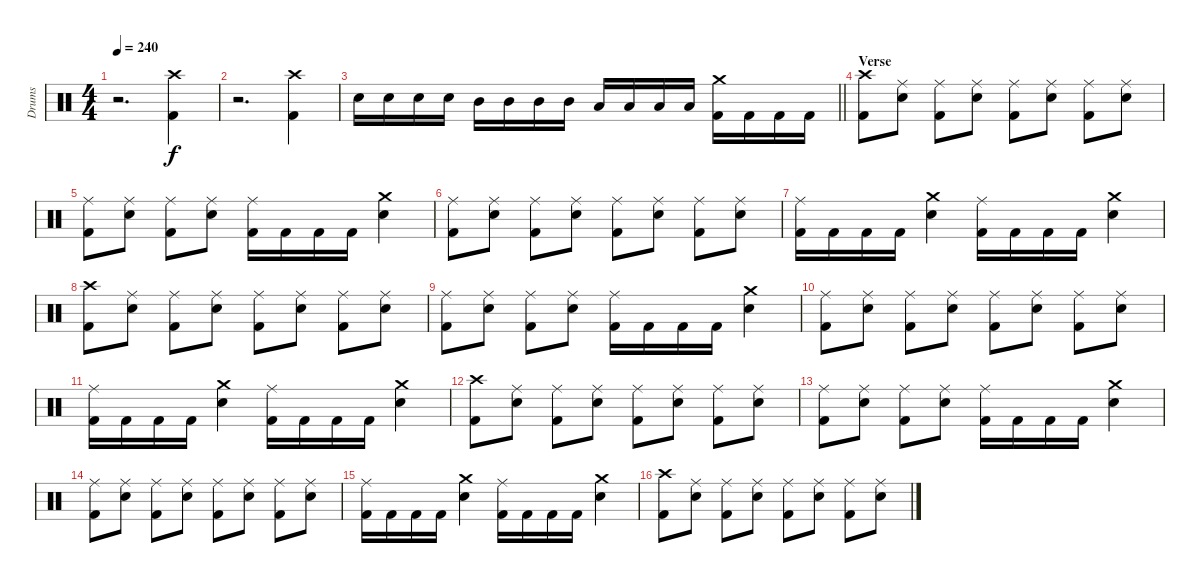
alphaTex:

\track ("Drums" "Drums") {instrument percussion}
\staff {score}
\articulation defaults
\ts (4 4)
\tempo 240
\clef neutral
\ks c
r.2{d dy f} ("Crash high (hit)" "Kick (hit) 2").4 |
r.2{d} ("Crash high (hit)" "Kick (hit) 2").4 |
\barLineRight lightlight "Snare (hit) 2".16 "Snare (hit) 2".16 "Snare (hit) 2".16 "Snare (hit) 2".16 "Mid Tom (hit)".16 "Mid Tom (hit)".16 "Mid Tom (hit)".16 "Mid Tom (hit)".16 "Low Tom (hit)".16 "Low Tom (hit)".16 "Low Tom (hit)".16 "Low Tom (hit)".16
("Crash medium (hit)" "Kick (hit) 2").16 "Kick (hit) 2".16 "Kick (hit) 2".16 "Kick (hit) 2".16 |
\section ("" "Verse")
("Crash high (hit)" "Kick (hit) 2").8 ("Ride (middle)" "Snare (hit) 2").8 ("Ride (middle)" "Kick (hit) 2").8 ("Ride (middle)" "Snare (hit) 2").8 ("Ride (middle)" "Kick (hit) 2").8 ("Ride (middle)" "Snare (hit) 2").8 ("Ride (middle)" "Kick (hit) 2").8 ("Ride (middle)" "Snare (hit) 2").8 |
("Ride (middle)" "Kick (hit) 2").8 ("Ride (middle)" "Snare (hit) 2").8 ("Ride (middle)" "Kick (hit) 2").8 ("Ride (middle)" "Snare (hit) 2").8 ("Ride (middle)" "Kick (hit) 2").16 "Kick (hit) 2".16 "Kick (hit) 2".16 "Kick (hit) 2".16 ("Crash medium (hit)" "Snare (hit) 2").4 |
("Ride (middle)" "Kick (hit) 2").8 ("Ride (middle)" "Snare (hit) 2").8 ("Ride (middle)" "Kick (hit) 2").8 ("Ride (middle)" "Snare (hit) 2").8 ("Ride (middle)" "Kick (hit) 2").8 ("Ride (middle)" "Snare (hit) 2").8 ("Ride (middle)" "Kick (hit) 2").8 ("Ride (middle)" "Snare (hit) 2").8 |
("Ride (middle)" "Kick (hit) 2").16 "Kick (hit) 2".16 "Kick (hit) 2".16 "Kick (hit) 2".16 ("Crash medium (hit)" "Snare (hit) 2").4 ("Ride (middle)" "Kick (hit) 2").16 "Kick (hit) 2".16 "Kick (hit) 2".16 "Kick (hit) 2".16 ("Crash medium (hit)" "Snare (hit) 2").4 |
("Crash high (hit)" "Kick (hit) 2").8 ("Ride (middle)" "Snare (hit) 2").8 ("Ride (middle)" "Kick (hit) 2").8 ("Ride (middle)" "Snare (hit) 2").8 ("Ride (middle)" "Kick (hit) 2").8 ("Ride (middle)" "Snare (hit) 2").8 ("Ride (middle)" "Kick (hit) 2").8 ("Ride (middle)" "Snare (hit) 2").8 |
("Ride (middle)" "Kick (hit) 2").8 ("Ride (middle)" "Snare (hit) 2").8 ("Ride (middle)" "Kick (hit) 2").8 ("Ride (middle)" "Snare (hit) 2").8 ("Ride (middle)" "Kick (hit) 2").16 "Kick (hit) 2".16 "Kick (hit) 2".16 "Kick (hit) 2".16 ("Crash medium (hit)" "Snare (hit) 2").4 |
("Ride (middle)" "Kick (hit) 2").8 ("Ride (middle)" "Snare (hit) 2").8 ("Ride (middle)" "Kick (hit) 2").8 ("Ride (middle)" "Snare (hit) 2").8 ("Ride (middle)" "Kick (hit) 2").8 ("Ride (middle)" "Snare (hit) 2").8 ("Ride (middle)" "Kick (hit) 2").8 ("Ride (middle)" "Snare (hit) 2").8 |
("Ride (middle)" "Kick (hit) 2").16 "Kick (hit) 2".16 "Kick (hit) 2".16 "Kick (hit) 2".16 ("Crash medium (hit)" "Snare (hit) 2").4 ("Ride (middle)" "Kick (hit) 2").16 "Kick (hit) 2".16 "Kick (hit) 2".16 "Kick (hit) 2".16 ("Crash medium (hit)" "Snare (hit) 2").4 |
("Crash high (hit)" "Kick (hit) 2").8 ("Ride (middle)" "Snare (hit) 2").8 ("Ride (middle)" "Kick (hit) 2").8 ("Ride (middle)" "Snare (hit) 2").8 ("Ride (middle)" "Kick (hit) 2").8 ("Ride (middle)" "Snare (hit) 2").8 ("Ride (middle)" "Kick (hit) 2").8 ("Ride (middle)" "Snare (hit) 2").8 |
("Ride (middle)" "Kick (hit) 2").8 ("Ride (middle)" "Snare (hit) 2").8 ("Ride (middle)" "Kick (hit) 2").8 ("Ride (middle)" "Snare (hit) 2").8 ("Ride (middle)" "Kick (hit) 2").16 "Kick (hit) 2".16 "Kick (hit) 2".16 "Kick (hit) 2".16 ("Crash medium (hit)" "Snare (hit) 2").4 |
("Ride (middle)" "Kick (hit) 2").8 ("Ride (middle)" "Snare (hit) 2").8 ("Ride (middle)" "Kick (hit) 2").8 ("Ride (middle)" "Snare (hit) 2").8 ("Ride (middle)" "Kick (hit) 2").8 ("Ride (middle)" "Snare (hit) 2").8 ("Ride (middle)" "Kick (hit) 2").8 ("Ride (middle)" "Snare (hit) 2").8 |
("Ride (middle)" "Kick (hit) 2").16 "Kick (hit) 2".16 "Kick (hit) 2".16 "Kick (hit) 2".16 ("Crash medium (hit)" "Snare (hit) 2").4 ("Ride (middle)" "Kick (hit) 2").16 "Kick (hit) 2".16 "Kick (hit) 2".16 "Kick (hit) 2".16 ("Crash medium (hit)" "Snare (hit) 2").4 |
("Crash high (hit)" "Kick (hit) 2").8 ("Ride (middle)" "Snare (hit) 2").8 ("Ride (middle)" "Kick (hit) 2").8 ("Ride (middle)" "Snare (hit) 2").8 ("Ride (middle)" "Kick (hit) 2").8 ("Ride (middle)" "Snare (hit) 2").8 ("Ride (middle)" "Kick (hit) 2").8 ("Ride (middle)" "Snare (hit) 2").8
